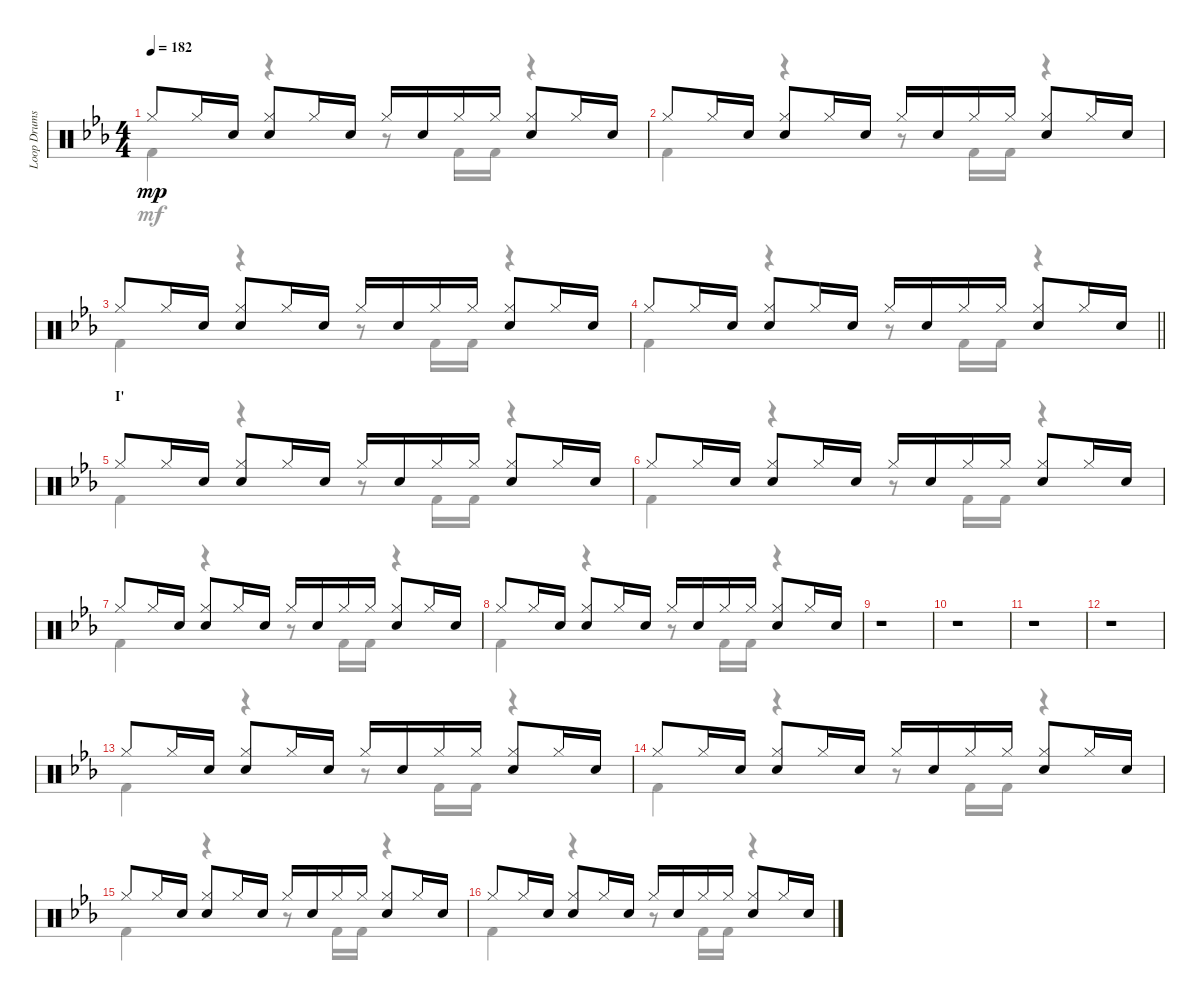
\track ("Loop Drums" "Loop Drums") {instrument percussion}
\staff {score}
\articulation defaults
\voice
\ts (4 4)
\tempo 182
\clef neutral
\ks eb "Hi-Hat (closed)".8{dy mp} "Hi-Hat (closed)".16 "Electric Snare (hit)".16
("Hi-Hat (closed)" "Electric Snare (hit)").8 "Hi-Hat (closed)".16 "Electric Snare (hit)".16 "Hi-Hat (closed)".16 "Electric Snare (hit)".16 "Hi-Hat (closed)".16 "Hi-Hat (closed)".16 ("Hi-Hat (closed)" "Electric Snare (hit)").8 "Hi-Hat (closed)".16 "Electric Snare (hit)".16 |
"Hi-Hat (closed)".8 "Hi-Hat (closed)".16 "Electric Snare (hit)".16 ("Hi-Hat (closed)" "Electric Snare (hit)").8 "Hi-Hat (closed)".16 "Electric Snare (hit)".16 "Hi-Hat (closed)".16 "Electric Snare (hit)".16 "Hi-Hat (closed)".16 "Hi-Hat (closed)".16 ("Hi-Hat (closed)" "Electric Snare (hit)").8 "Hi-Hat (closed)".16 "Electric Snare (hit)".16 |
"Hi-Hat (closed)".8 "Hi-Hat (closed)".16 "Electric Snare (hit)".16 ("Hi-Hat (closed)" "Electric Snare (hit)").8 "Hi-Hat (closed)".16 "Electric Snare (hit)".16 "Hi-Hat (closed)".16 "Electric Snare (hit)".16 "Hi-Hat (closed)".16 "Hi-Hat (closed)".16 ("Hi-Hat (closed)" "Electric Snare (hit)").8 "Hi-Hat (closed)".16 "Electric Snare (hit)".16 |
\barLineRight lightlight "Hi-Hat (closed)".8 "Hi-Hat (closed)".16 "Electric Snare (hit)".16
("Hi-Hat (closed)" "Electric Snare (hit)").8 "Hi-Hat (closed)".16 "Electric Snare (hit)".16 "Hi-Hat (closed)".16 "Electric Snare (hit)".16 "Hi-Hat (closed)".16 "Hi-Hat (closed)".16 ("Hi-Hat (closed)" "Electric Snare (hit)").8 "Hi-Hat (closed)".16 "Electric Snare (hit)".16 |
\section ("" "I'")
"Hi-Hat (closed)".8 "Hi-Hat (closed)".16 "Electric Snare (hit)".16 ("Hi-Hat (closed)" "Electric Snare (hit)").8 "Hi-Hat (closed)".16 "Electric Snare (hit)".16 "Hi-Hat (closed)".16 "Electric Snare (hit)".16 "Hi-Hat (closed)".16 "Hi-Hat (closed)".16 ("Hi-Hat (closed)" "Electric Snare (hit)").8 "Hi-Hat (closed)".16 "Electric Snare (hit)".16 |
"Hi-Hat (closed)".8 "Hi-Hat (closed)".16 "Electric Snare (hit)".16 ("Hi-Hat (closed)" "Electric Snare (hit)").8 "Hi-Hat (closed)".16 "Electric Snare (hit)".16 "Hi-Hat (closed)".16 "Electric Snare (hit)".16 "Hi-Hat (closed)".16 "Hi-Hat (closed)".16 ("Hi-Hat (closed)" "Electric Snare (hit)").8 "Hi-Hat (closed)".16 "Electric Snare (hit)".16 |
"Hi-Hat (closed)".8 "Hi-Hat (closed)".16 "Electric Snare (hit)".16 ("Hi-Hat (closed)" "Electric Snare (hit)").8 "Hi-Hat (closed)".16 "Electric Snare (hit)".16 "Hi-Hat (closed)".16 "Electric Snare (hit)".16 "Hi-Hat (closed)".16 "Hi-Hat (closed)".16 ("Hi-Hat (closed)" "Electric Snare (hit)").8 "Hi-Hat (closed)".16 "Electric Snare (hit)".16 |
"Hi-Hat (closed)".8 "Hi-Hat (closed)".16 "Electric Snare (hit)".16 ("Hi-Hat (closed)" "Electric Snare (hit)").8 "Hi-Hat (closed)".16 "Electric Snare (hit)".16 "Hi-Hat (closed)".16 "Electric Snare (hit)".16 "Hi-Hat (closed)".16 "Hi-Hat (closed)".16 ("Hi-Hat (closed)" "Electric Snare (hit)").8 "Hi-Hat (closed)".16 "Electric Snare (hit)".16 |
r.1 |
r.1 |
r.1 |
r.1 |
"Hi-Hat (closed)".8 "Hi-Hat (closed)".16 "Electric Snare (hit)".16 ("Hi-Hat (closed)" "Electric Snare (hit)").8 "Hi-Hat (closed)".16 "Electric Snare (hit)".16 "Hi-Hat (closed)".16 "Electric Snare (hit)".16 "Hi-Hat (closed)".16 "Hi-Hat (closed)".16 ("Hi-Hat (closed)" "Electric Snare (hit)").8 "Hi-Hat (closed)".16 "Electric Snare (hit)".16 |
"Hi-Hat (closed)".8 "Hi-Hat (closed)".16 "Electric Snare (hit)".16 ("Hi-Hat (closed)" "Electric Snare (hit)").8 "Hi-Hat (closed)".16 "Electric Snare (hit)".16 "Hi-Hat (closed)".16 "Electric Snare (hit)".16 "Hi-Hat (closed)".16 "Hi-Hat (closed)".16 ("Hi-Hat (closed)" "Electric Snare (hit)").8 "Hi-Hat (closed)".16 "Electric Snare (hit)".16 |
"Hi-Hat (closed)".8 "Hi-Hat (closed)".16 "Electric Snare (hit)".16 ("Hi-Hat (closed)" "Electric Snare (hit)").8 "Hi-Hat (closed)".16 "Electric Snare (hit)".16 "Hi-Hat (closed)".16 "Electric Snare (hit)".16 "Hi-Hat (closed)".16 "Hi-Hat (closed)".16 ("Hi-Hat (closed)" "Electric Snare (hit)").8 "Hi-Hat (closed)".16 "Electric Snare (hit)".16 |
"Hi-Hat (closed)".8 "Hi-Hat (closed)".16 "Electric Snare (hit)".16 ("Hi-Hat (closed)" "Electric Snare (hit)").8 "Hi-Hat (closed)".16 "Electric Snare (hit)".16 "Hi-Hat (closed)".16 "Electric Snare (hit)".16 "Hi-Hat (closed)".16 "Hi-Hat (closed)".16 ("Hi-Hat (closed)" "Electric Snare (hit)").8 "Hi-Hat (closed)".16 "Electric Snare (hit)".16
\voice
\clef neutral
\ottava regular
\simile none
\ks eb "Kick (hit) 2".4{dy mf}
r.4 r.8 "Kick (hit) 2".16 "Kick (hit) 2".16 r.4 |
"Kick (hit) 2".4 r.4 r.8 "Kick (hit) 2".16 "Kick (hit) 2".16 r.4 |
"Kick (hit) 2".4 r.4 r.8 "Kick (hit) 2".16 "Kick (hit) 2".16 r.4 |
\barLineRight lightlight "Kick (hit) 2".4
r.4 r.8 "Kick (hit) 2".16 "Kick (hit) 2".16 r.4 |
"Kick (hit) 2".4 r.4 r.8 "Kick (hit) 2".16 "Kick (hit) 2".16 r.4 |
"Kick (hit) 2".4 r.4 r.8 "Kick (hit) 2".16 "Kick (hit) 2".16 r.4 |
"Kick (hit) 2".4 r.4 r.8 "Kick (hit) 2".16 "Kick (hit) 2".16 r.4 |
"Kick (hit) 2".4 r.4 r.8 "Kick (hit) 2".16 "Kick (hit) 2".16 r.4 |
r.1 |
r.1 |
r.1 |
r.1 |
"Kick (hit) 2".4 r.4 r.8 "Kick (hit) 2".16 "Kick (hit) 2".16 r.4 |
"Kick (hit) 2".4 r.4 r.8 "Kick (hit) 2".16 "Kick (hit) 2".16 r.4 |
"Kick (hit) 2".4 r.4 r.8 "Kick (hit) 2".16 "Kick (hit) 2".16 r.4 |
"Kick (hit) 2".4 r.4 r.8 "Kick (hit) 2".16 "Kick (hit) 2".16 r.4
